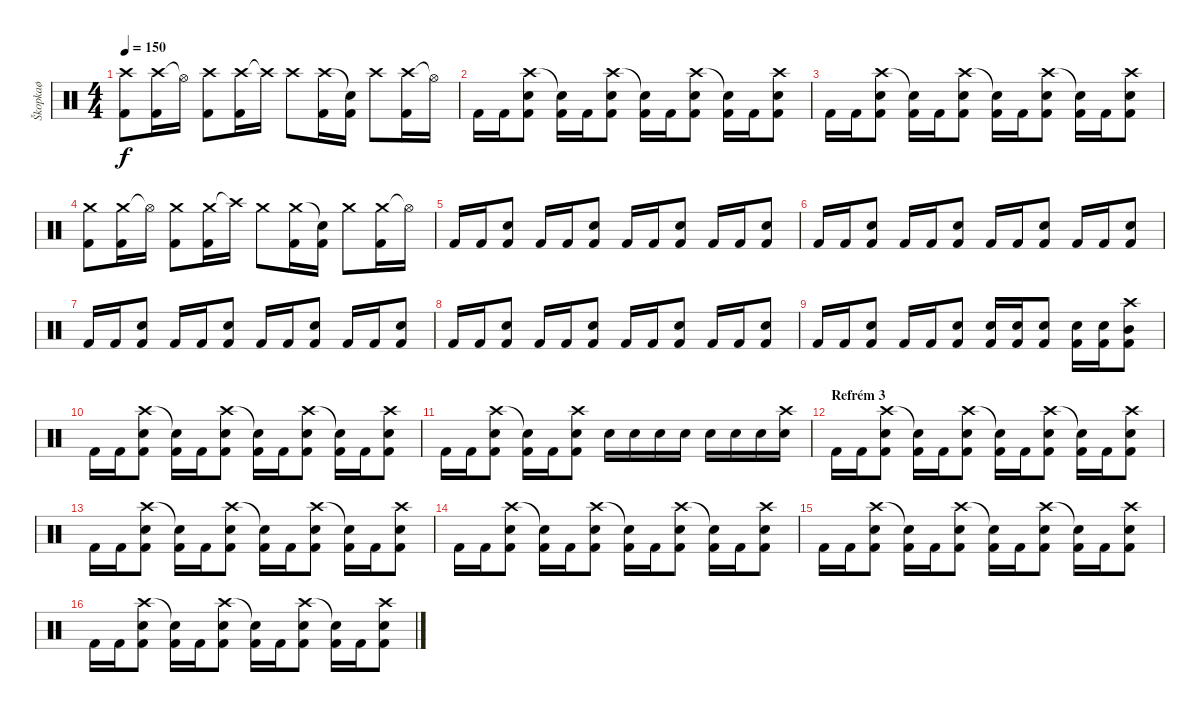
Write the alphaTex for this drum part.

\track ("Škopkaø" "Škopkaø") {instrument percussion}
\staff {score}
\articulation defaults
\ts (4 4)
\tempo 150
\clef neutral
\ks c
("Crash high (hit)" "Kick (hit) 2").8{dy f} ("Crash high (hit)" "Kick (hit) 2").16 "Hi-Hat (open)"{t}.16 ("Crash high (hit)" "Kick (hit) 2").8 ("Crash high (hit)" "Kick (hit) 2").16 "Crash high (hit)"{t}.16 "Crash high (hit)".8 ("Crash high (hit)" "Kick (hit) 2").16 ("Snare (hit)"{t} "Kick (hit) 2").16 "Crash high (hit)".8 ("Crash high (hit)" "Kick (hit) 2").16 "Hi-Hat (open)"{t}.16 |
"Kick (hit) 2".16 "Kick (hit) 2".16 ("Crash high (hit)" "Electric Snare (hit)" "Kick (hit) 2").8 ("Snare (hit)"{t} "Kick (hit) 2").16 "Kick (hit) 2".16 ("Crash high (hit)" "Electric Snare (hit)" "Kick (hit) 2").8 ("Snare (hit)"{t} "Kick (hit) 2").16 "Kick (hit) 2".16 ("Crash high (hit)" "Electric Snare (hit)" "Kick (hit) 2").8 ("Snare (hit)"{t} "Kick (hit) 2").16 "Kick (hit) 2".16 ("Crash high (hit)" "Electric Snare (hit)" "Kick (hit) 2").8 |
"Kick (hit) 2".16 "Kick (hit) 2".16 ("Crash high (hit)" "Electric Snare (hit)" "Kick (hit) 2").8 ("Snare (hit)"{t} "Kick (hit) 2").16 "Kick (hit) 2".16 ("Crash high (hit)" "Electric Snare (hit)" "Kick (hit) 2").8 ("Snare (hit)"{t} "Kick (hit) 2").16 "Kick (hit) 2".16 ("Crash high (hit)" "Electric Snare (hit)" "Kick (hit) 2").8 ("Snare (hit)"{t} "Kick (hit) 2").16 "Kick (hit) 2".16 ("Crash high (hit)" "Electric Snare (hit)" "Kick (hit) 2").8 |
("Crash medium (hit)" "Kick (hit) 2").8 ("Crash medium (hit)" "Kick (hit) 2").16 "Hi-Hat (open)"{t}.16 ("Crash medium (hit)" "Kick (hit) 2").8 ("Crash medium (hit)" "Kick (hit) 2").16 "Crash high (hit)"{t}.16 "Crash medium (hit)".8 ("Crash medium (hit)" "Kick (hit) 2").16 ("Snare (hit)"{t} "Kick (hit) 2").16 "Crash medium (hit)".8 ("Crash medium (hit)" "Kick (hit) 2").16 "Hi-Hat (open)"{t}.16 |
"Kick (hit) 2".16 "Kick (hit) 2".16 ("Electric Snare (hit)" "Kick (hit) 2").8 "Kick (hit) 2".16 "Kick (hit) 2".16 ("Electric Snare (hit)" "Kick (hit) 2").8 "Kick (hit) 2".16 "Kick (hit) 2".16 ("Electric Snare (hit)" "Kick (hit) 2").8 "Kick (hit) 2".16 "Kick (hit) 2".16 ("Electric Snare (hit)" "Kick (hit) 2").8 |
"Kick (hit) 2".16 "Kick (hit) 2".16 ("Electric Snare (hit)" "Kick (hit) 2").8 "Kick (hit) 2".16 "Kick (hit) 2".16 ("Electric Snare (hit)" "Kick (hit) 2").8 "Kick (hit) 2".16 "Kick (hit) 2".16 ("Electric Snare (hit)" "Kick (hit) 2").8 "Kick (hit) 2".16 "Kick (hit) 2".16 ("Electric Snare (hit)" "Kick (hit) 2").8 |
"Kick (hit) 2".16 "Kick (hit) 2".16 ("Electric Snare (hit)" "Kick (hit) 2").8 "Kick (hit) 2".16 "Kick (hit) 2".16 ("Electric Snare (hit)" "Kick (hit) 2").8 "Kick (hit) 2".16 "Kick (hit) 2".16 ("Electric Snare (hit)" "Kick (hit) 2").8 "Kick (hit) 2".16 "Kick (hit) 2".16 ("Electric Snare (hit)" "Kick (hit) 2").8 |
"Kick (hit) 2".16 "Kick (hit) 2".16 ("Electric Snare (hit)" "Kick (hit) 2").8 "Kick (hit) 2".16 "Kick (hit) 2".16 ("Electric Snare (hit)" "Kick (hit) 2").8 "Kick (hit) 2".16 "Kick (hit) 2".16 ("Electric Snare (hit)" "Kick (hit) 2").8 "Kick (hit) 2".16 "Kick (hit) 2".16 ("Electric Snare (hit)" "Kick (hit) 2").8 |
"Kick (hit) 2".16 "Kick (hit) 2".16 ("Electric Snare (hit)" "Kick (hit) 2").8 "Kick (hit) 2".16 "Kick (hit) 2".16 ("Electric Snare (hit)" "Kick (hit) 2").8 ("Electric Snare (hit)" "Kick (hit) 2").16 ("Electric Snare (hit)" "Kick (hit) 2").16 ("Electric Snare (hit)" "Kick (hit) 2").8 ("Electric Snare (hit)" "Kick (hit) 2").16 ("Electric Snare (hit)" "Kick (hit) 2").16 ("Mid Tom (hit)" "Crash high (hit)" "Kick (hit) 2").8 |
"Kick (hit) 2".16 "Kick (hit) 2".16 ("Crash high (hit)" "Electric Snare (hit)" "Kick (hit) 2").8 ("Snare (hit)"{t} "Kick (hit) 2").16 "Kick (hit) 2".16 ("Crash high (hit)" "Electric Snare (hit)" "Kick (hit) 2").8 ("Snare (hit)"{t} "Kick (hit) 2").16 "Kick (hit) 2".16 ("Crash high (hit)" "Electric Snare (hit)" "Kick (hit) 2").8 ("Snare (hit)"{t} "Kick (hit) 2").16 "Kick (hit) 2".16 ("Crash high (hit)" "Electric Snare (hit)" "Kick (hit) 2").8 |
"Kick (hit) 2".16 "Kick (hit) 2".16 ("Crash high (hit)" "Electric Snare (hit)" "Kick (hit) 2").8 ("Snare (hit)"{t} "Kick (hit) 2").16 "Kick (hit) 2".16 ("Crash high (hit)" "Electric Snare (hit)" "Kick (hit) 2").8 "Electric Snare (hit)".16 "Electric Snare (hit)".16 "Electric Snare (hit)".16 "Electric Snare (hit)".16 "Electric Snare (hit)".16 "Electric Snare (hit)".16 "Electric Snare (hit)".16 ("Crash high (hit)" "Electric Snare (hit)").16 |
\section ("" "Refrém 3")
"Kick (hit) 2".16 "Kick (hit) 2".16 ("Crash high (hit)" "Electric Snare (hit)" "Kick (hit) 2").8 ("Snare (hit)"{t} "Kick (hit) 2").16 "Kick (hit) 2".16 ("Crash high (hit)" "Electric Snare (hit)" "Kick (hit) 2").8 ("Snare (hit)"{t} "Kick (hit) 2").16 "Kick (hit) 2".16 ("Crash high (hit)" "Electric Snare (hit)" "Kick (hit) 2").8 ("Snare (hit)"{t} "Kick (hit) 2").16 "Kick (hit) 2".16 ("Crash high (hit)" "Electric Snare (hit)" "Kick (hit) 2").8 |
"Kick (hit) 2".16 "Kick (hit) 2".16 ("Crash high (hit)" "Electric Snare (hit)" "Kick (hit) 2").8 ("Snare (hit)"{t} "Kick (hit) 2").16 "Kick (hit) 2".16 ("Crash high (hit)" "Electric Snare (hit)" "Kick (hit) 2").8 ("Snare (hit)"{t} "Kick (hit) 2").16 "Kick (hit) 2".16 ("Crash high (hit)" "Electric Snare (hit)" "Kick (hit) 2").8 ("Snare (hit)"{t} "Kick (hit) 2").16 "Kick (hit) 2".16 ("Crash high (hit)" "Electric Snare (hit)" "Kick (hit) 2").8 |
"Kick (hit) 2".16 "Kick (hit) 2".16 ("Crash high (hit)" "Electric Snare (hit)" "Kick (hit) 2").8 ("Snare (hit)"{t} "Kick (hit) 2").16 "Kick (hit) 2".16 ("Crash high (hit)" "Electric Snare (hit)" "Kick (hit) 2").8 ("Snare (hit)"{t} "Kick (hit) 2").16 "Kick (hit) 2".16 ("Crash high (hit)" "Electric Snare (hit)" "Kick (hit) 2").8 ("Snare (hit)"{t} "Kick (hit) 2").16 "Kick (hit) 2".16 ("Crash high (hit)" "Electric Snare (hit)" "Kick (hit) 2").8 |
"Kick (hit) 2".16 "Kick (hit) 2".16 ("Crash high (hit)" "Electric Snare (hit)" "Kick (hit) 2").8 ("Snare (hit)"{t} "Kick (hit) 2").16 "Kick (hit) 2".16 ("Crash high (hit)" "Electric Snare (hit)" "Kick (hit) 2").8 ("Snare (hit)"{t} "Kick (hit) 2").16 "Kick (hit) 2".16 ("Crash high (hit)" "Electric Snare (hit)" "Kick (hit) 2").8 ("Snare (hit)"{t} "Kick (hit) 2").16 "Kick (hit) 2".16 ("Crash high (hit)" "Electric Snare (hit)" "Kick (hit) 2").8 |
"Kick (hit) 2".16 "Kick (hit) 2".16 ("Crash high (hit)" "Electric Snare (hit)" "Kick (hit) 2").8 ("Snare (hit)"{t} "Kick (hit) 2").16 "Kick (hit) 2".16 ("Crash high (hit)" "Electric Snare (hit)" "Kick (hit) 2").8 ("Snare (hit)"{t} "Kick (hit) 2").16 "Kick (hit) 2".16 ("Crash high (hit)" "Electric Snare (hit)" "Kick (hit) 2").8 ("Snare (hit)"{t} "Kick (hit) 2").16 "Kick (hit) 2".16 ("Crash high (hit)" "Electric Snare (hit)" "Kick (hit) 2").8
